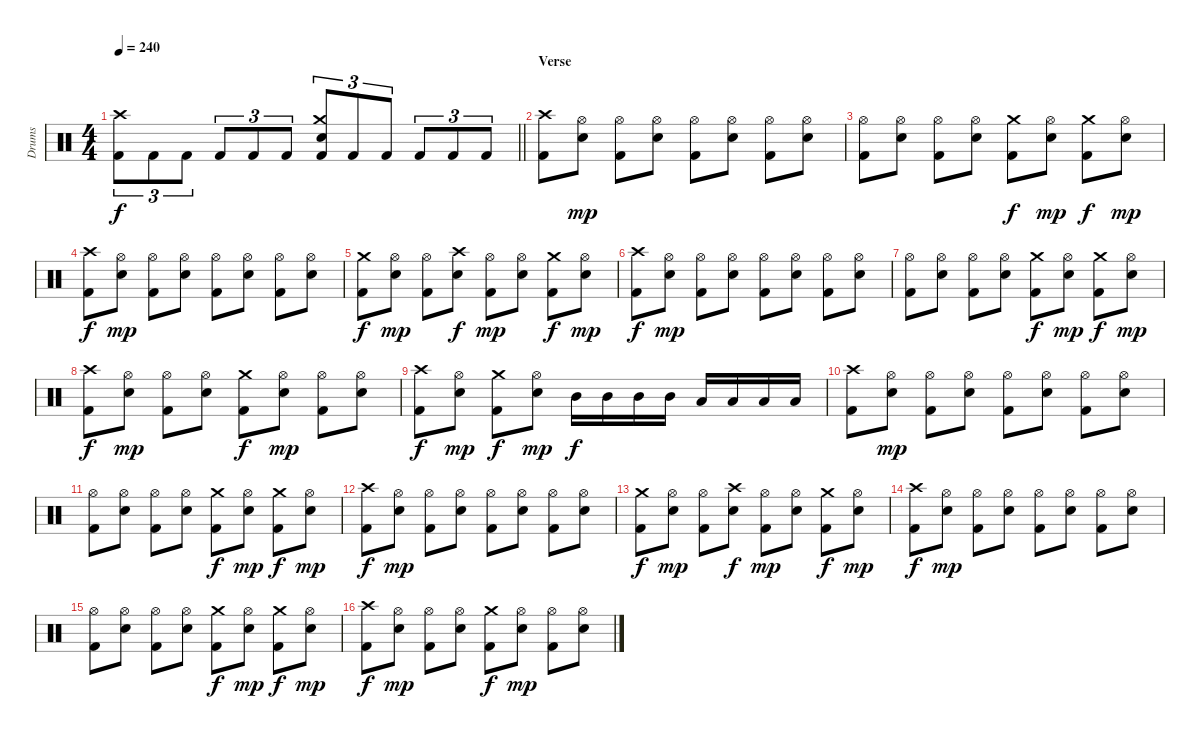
\track ("Drums" "Drums") {instrument percussion}
\staff {score}
\articulation defaults
\ts (4 4)
\tempo 240
\clef neutral
\barLineRight lightlight
\ks c
("Crash high (hit)" "Kick (hit) 2").8{tu (3 2) dy f} "Kick (hit) 2".8{tu (3 2)} "Kick (hit) 2".8{tu (3 2)} "Kick (hit) 2".8{tu (3 2)} "Kick (hit) 2".8{tu (3 2)} "Kick (hit) 2".8{tu (3 2)} ("Crash medium (hit)" "Snare (hit) 2" "Kick (hit) 2").8{tu (3 2)} "Kick (hit) 2".8{tu (3 2)} "Kick (hit) 2".8{tu (3 2)} "Kick (hit) 2".8{tu (3 2)} "Kick (hit) 2".8{tu (3 2)} "Kick (hit) 2".8{tu (3 2)} |
\section ("" "Verse")
("Crash high (hit)" "Kick (hit) 2").8 ("Hi-Hat (open)" "Snare (hit) 2").8{dy mp} ("Hi-Hat (open)" "Kick (hit) 2").8 ("Hi-Hat (open)" "Snare (hit) 2").8 ("Hi-Hat (open)" "Kick (hit) 2").8 ("Hi-Hat (open)" "Snare (hit) 2").8 ("Hi-Hat (open)" "Kick (hit) 2").8 ("Hi-Hat (open)" "Snare (hit) 2").8 |
("Hi-Hat (open)" "Kick (hit) 2").8 ("Hi-Hat (open)" "Snare (hit) 2").8 ("Hi-Hat (open)" "Kick (hit) 2").8 ("Hi-Hat (open)" "Snare (hit) 2").8 ("Crash medium (hit)" "Kick (hit) 2").8{dy f} ("Hi-Hat (open)" "Snare (hit) 2").8{dy mp} ("Crash medium (hit)" "Kick (hit) 2").8{dy f} ("Hi-Hat (open)" "Snare (hit) 2").8{dy mp} |
("Crash high (hit)" "Kick (hit) 2").8{dy f} ("Hi-Hat (open)" "Snare (hit) 2").8{dy mp} ("Hi-Hat (open)" "Kick (hit) 2").8 ("Hi-Hat (open)" "Snare (hit) 2").8 ("Hi-Hat (open)" "Kick (hit) 2").8 ("Hi-Hat (open)" "Snare (hit) 2").8 ("Hi-Hat (open)" "Kick (hit) 2").8 ("Hi-Hat (open)" "Snare (hit) 2").8 |
("Crash medium (hit)" "Kick (hit) 2").8{dy f} ("Hi-Hat (open)" "Snare (hit) 2").8{dy mp} ("Hi-Hat (open)" "Kick (hit) 2").8 ("Crash high (hit)" "Snare (hit) 2").8{dy f} ("Hi-Hat (open)" "Kick (hit) 2").8{dy mp} ("Hi-Hat (open)" "Snare (hit) 2").8 ("Crash medium (hit)" "Kick (hit) 2").8{dy f} ("Hi-Hat (open)" "Snare (hit) 2").8{dy mp} |
("Crash high (hit)" "Kick (hit) 2").8{dy f} ("Hi-Hat (open)" "Snare (hit) 2").8{dy mp} ("Hi-Hat (open)" "Kick (hit) 2").8 ("Hi-Hat (open)" "Snare (hit) 2").8 ("Hi-Hat (open)" "Kick (hit) 2").8 ("Hi-Hat (open)" "Snare (hit) 2").8 ("Hi-Hat (open)" "Kick (hit) 2").8 ("Hi-Hat (open)" "Snare (hit) 2").8 |
("Hi-Hat (open)" "Kick (hit) 2").8 ("Hi-Hat (open)" "Snare (hit) 2").8 ("Hi-Hat (open)" "Kick (hit) 2").8 ("Hi-Hat (open)" "Snare (hit) 2").8 ("Crash medium (hit)" "Kick (hit) 2").8{dy f} ("Hi-Hat (open)" "Snare (hit) 2").8{dy mp} ("Crash medium (hit)" "Kick (hit) 2").8{dy f} ("Hi-Hat (open)" "Snare (hit) 2").8{dy mp} |
("Crash high (hit)" "Kick (hit) 2").8{dy f} ("Hi-Hat (open)" "Snare (hit) 2").8{dy mp} ("Hi-Hat (open)" "Kick (hit) 2").8 ("Hi-Hat (open)" "Snare (hit) 2").8 ("Crash medium (hit)" "Kick (hit) 2").8{dy f} ("Hi-Hat (open)" "Snare (hit) 2").8{dy mp} ("Hi-Hat (open)" "Kick (hit) 2").8 ("Hi-Hat (open)" "Snare (hit) 2").8 |
("Crash high (hit)" "Kick (hit) 2").8{dy f} ("Hi-Hat (open)" "Snare (hit) 2").8{dy mp} ("Crash medium (hit)" "Kick (hit) 2").8{dy f} ("Hi-Hat (open)" "Snare (hit) 2").8{dy mp} "Mid Tom (hit)".16{dy f} "Mid Tom (hit)".16 "Mid Tom (hit)".16 "Mid Tom (hit)".16 "Low Tom (hit)".16 "Low Tom (hit)".16 "Low Tom (hit)".16 "Low Tom (hit)".16 |
("Crash high (hit)" "Kick (hit) 2").8 ("Hi-Hat (open)" "Snare (hit) 2").8{dy mp} ("Hi-Hat (open)" "Kick (hit) 2").8 ("Hi-Hat (open)" "Snare (hit) 2").8 ("Hi-Hat (open)" "Kick (hit) 2").8 ("Hi-Hat (open)" "Snare (hit) 2").8 ("Hi-Hat (open)" "Kick (hit) 2").8 ("Hi-Hat (open)" "Snare (hit) 2").8 |
("Hi-Hat (open)" "Kick (hit) 2").8 ("Hi-Hat (open)" "Snare (hit) 2").8 ("Hi-Hat (open)" "Kick (hit) 2").8 ("Hi-Hat (open)" "Snare (hit) 2").8 ("Crash medium (hit)" "Kick (hit) 2").8{dy f} ("Hi-Hat (open)" "Snare (hit) 2").8{dy mp} ("Crash medium (hit)" "Kick (hit) 2").8{dy f} ("Hi-Hat (open)" "Snare (hit) 2").8{dy mp} |
("Crash high (hit)" "Kick (hit) 2").8{dy f} ("Hi-Hat (open)" "Snare (hit) 2").8{dy mp} ("Hi-Hat (open)" "Kick (hit) 2").8 ("Hi-Hat (open)" "Snare (hit) 2").8 ("Hi-Hat (open)" "Kick (hit) 2").8 ("Hi-Hat (open)" "Snare (hit) 2").8 ("Hi-Hat (open)" "Kick (hit) 2").8 ("Hi-Hat (open)" "Snare (hit) 2").8 |
("Crash medium (hit)" "Kick (hit) 2").8{dy f} ("Hi-Hat (open)" "Snare (hit) 2").8{dy mp} ("Hi-Hat (open)" "Kick (hit) 2").8 ("Crash high (hit)" "Snare (hit) 2").8{dy f} ("Hi-Hat (open)" "Kick (hit) 2").8{dy mp} ("Hi-Hat (open)" "Snare (hit) 2").8 ("Crash medium (hit)" "Kick (hit) 2").8{dy f} ("Hi-Hat (open)" "Snare (hit) 2").8{dy mp} |
("Crash high (hit)" "Kick (hit) 2").8{dy f} ("Hi-Hat (open)" "Snare (hit) 2").8{dy mp} ("Hi-Hat (open)" "Kick (hit) 2").8 ("Hi-Hat (open)" "Snare (hit) 2").8 ("Hi-Hat (open)" "Kick (hit) 2").8 ("Hi-Hat (open)" "Snare (hit) 2").8 ("Hi-Hat (open)" "Kick (hit) 2").8 ("Hi-Hat (open)" "Snare (hit) 2").8 |
("Hi-Hat (open)" "Kick (hit) 2").8 ("Hi-Hat (open)" "Snare (hit) 2").8 ("Hi-Hat (open)" "Kick (hit) 2").8 ("Hi-Hat (open)" "Snare (hit) 2").8 ("Crash medium (hit)" "Kick (hit) 2").8{dy f} ("Hi-Hat (open)" "Snare (hit) 2").8{dy mp} ("Crash medium (hit)" "Kick (hit) 2").8{dy f} ("Hi-Hat (open)" "Snare (hit) 2").8{dy mp} |
("Crash high (hit)" "Kick (hit) 2").8{dy f} ("Hi-Hat (open)" "Snare (hit) 2").8{dy mp} ("Hi-Hat (open)" "Kick (hit) 2").8 ("Hi-Hat (open)" "Snare (hit) 2").8 ("Crash medium (hit)" "Kick (hit) 2").8{dy f} ("Hi-Hat (open)" "Snare (hit) 2").8{dy mp} ("Hi-Hat (open)" "Kick (hit) 2").8 ("Hi-Hat (open)" "Snare (hit) 2").8
